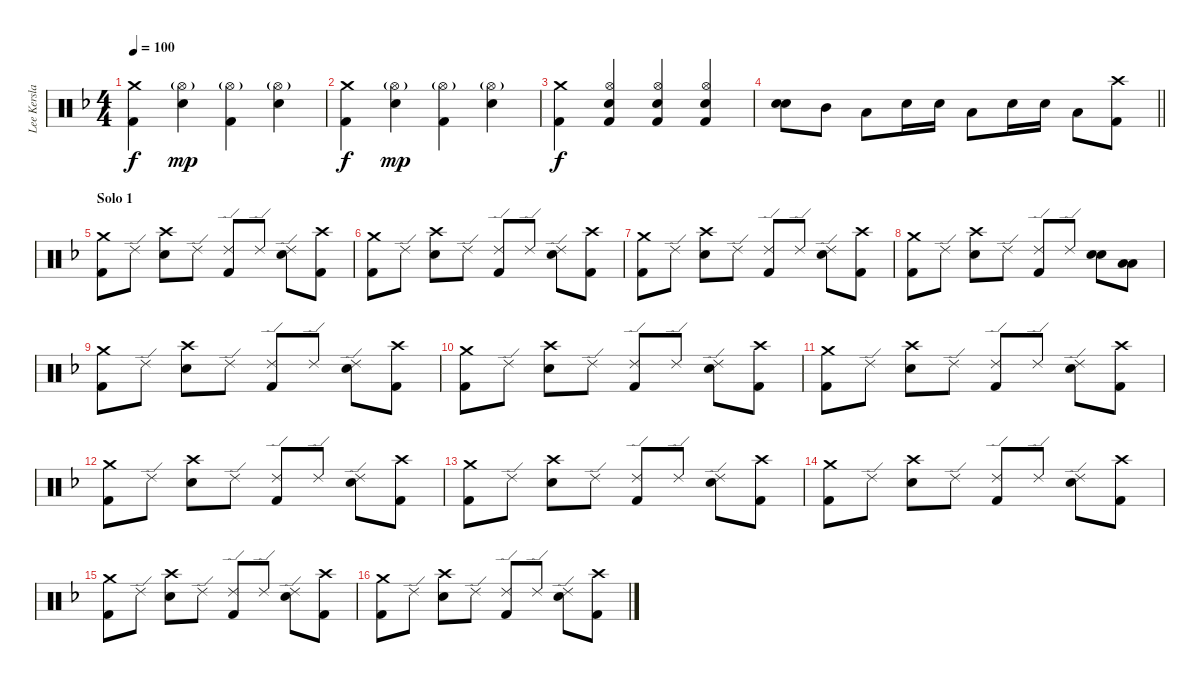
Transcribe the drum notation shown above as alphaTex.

\track ("Lee Kerslake - Drums" "Lee Kersla") {instrument percussion}
\staff {score}
\articulation defaults
\ts (4 4)
\tempo 100
\clef neutral
\ks dminor
("Crash medium (hit)" "Kick (hit) 2").4{dy f} ("Hi-Hat (open)"{g} "Snare (hit) 2").4{dy mp} ("Hi-Hat (open)"{g} "Kick (hit) 2").4 ("Hi-Hat (open)"{g} "Snare (hit) 2").4 |
("Crash medium (hit)" "Kick (hit) 2").4{dy f} ("Hi-Hat (open)"{g} "Snare (hit) 2").4{dy mp} ("Hi-Hat (open)"{g} "Kick (hit) 2").4 ("Hi-Hat (open)"{g} "Snare (hit) 2").4 |
("Crash medium (hit)" "Kick (hit) 2").4{dy f} ("Hi-Hat (open)" "Snare (hit) 2" "Kick (hit) 2").4 ("Hi-Hat (open)" "Snare (hit) 2" "Kick (hit) 2").4 ("Hi-Hat (open)" "Snare (hit) 2" "Kick (hit) 2").4 |
\barLineRight lightlight
("Snare (hit) 2" "Snare (hit) 2").8{bd 240} "Mid Tom (hit)".8 "Low Tom (hit)".8 "Snare (hit) 2".16 "Snare (hit) 2".16 "Low Tom (hit)".8 "Snare (hit) 2".16 "Snare (hit) 2".16 "Low Tom (hit)".8 ("Crash high (hit)" "Kick (hit) 2").8 |
\section ("" "Solo 1")
("Crash medium (hit)" "Kick (hit) 2").8 "Ride (edge) 2".8 ("Crash high (hit)" "Snare (hit) 2").8 "Ride (edge) 2".8 ("Ride (edge) 2" "Kick (hit) 2").8 "Ride (edge) 2".8 ("Ride (edge) 2" "Snare (hit) 2").8 ("Crash high (hit)" "Kick (hit) 2").8 |
("Crash medium (hit)" "Kick (hit) 2").8 "Ride (edge) 2".8 ("Crash high (hit)" "Snare (hit) 2").8 "Ride (edge) 2".8 ("Ride (edge) 2" "Kick (hit) 2").8 "Ride (edge) 2".8 ("Ride (edge) 2" "Snare (hit) 2").8 ("Crash high (hit)" "Kick (hit) 2").8 |
("Crash medium (hit)" "Kick (hit) 2").8 "Ride (edge) 2".8 ("Crash high (hit)" "Snare (hit) 2").8 "Ride (edge) 2".8 ("Ride (edge) 2" "Kick (hit) 2").8 "Ride (edge) 2".8 ("Ride (edge) 2" "Snare (hit) 2").8 ("Crash high (hit)" "Kick (hit) 2").8 |
("Crash medium (hit)" "Kick (hit) 2").8 "Ride (edge) 2".8 ("Crash high (hit)" "Snare (hit) 2").8 "Ride (edge) 2".8 ("Ride (edge) 2" "Kick (hit) 2").8 "Ride (edge) 2".8 ("Snare (hit) 2" "Snare (hit) 2").8{bd 240} ("Low Tom (hit)" "Low Tom (hit)").8{bd 240} |
("Crash medium (hit)" "Kick (hit) 2").8 "Ride (edge) 2".8 ("Crash high (hit)" "Snare (hit) 2").8 "Ride (edge) 2".8 ("Ride (edge) 2" "Kick (hit) 2").8 "Ride (edge) 2".8 ("Ride (edge) 2" "Snare (hit) 2").8 ("Crash high (hit)" "Kick (hit) 2").8 |
("Crash medium (hit)" "Kick (hit) 2").8 "Ride (edge) 2".8 ("Crash high (hit)" "Snare (hit) 2").8 "Ride (edge) 2".8 ("Ride (edge) 2" "Kick (hit) 2").8 "Ride (edge) 2".8 ("Ride (edge) 2" "Snare (hit) 2").8 ("Crash high (hit)" "Kick (hit) 2").8 |
("Crash medium (hit)" "Kick (hit) 2").8 "Ride (edge) 2".8 ("Crash high (hit)" "Snare (hit) 2").8 "Ride (edge) 2".8 ("Ride (edge) 2" "Kick (hit) 2").8 "Ride (edge) 2".8 ("Ride (edge) 2" "Snare (hit) 2").8 ("Crash high (hit)" "Kick (hit) 2").8 |
("Crash medium (hit)" "Kick (hit) 2").8 "Ride (edge) 2".8 ("Crash high (hit)" "Snare (hit) 2").8 "Ride (edge) 2".8 ("Ride (edge) 2" "Kick (hit) 2").8 "Ride (edge) 2".8 ("Ride (edge) 2" "Snare (hit) 2").8 ("Crash high (hit)" "Kick (hit) 2").8 |
("Crash medium (hit)" "Kick (hit) 2").8 "Ride (edge) 2".8 ("Crash high (hit)" "Snare (hit) 2").8 "Ride (edge) 2".8 ("Ride (edge) 2" "Kick (hit) 2").8 "Ride (edge) 2".8 ("Ride (edge) 2" "Snare (hit) 2").8 ("Crash high (hit)" "Kick (hit) 2").8 |
("Crash medium (hit)" "Kick (hit) 2").8 "Ride (edge) 2".8 ("Crash high (hit)" "Snare (hit) 2").8 "Ride (edge) 2".8 ("Ride (edge) 2" "Kick (hit) 2").8 "Ride (edge) 2".8 ("Ride (edge) 2" "Snare (hit) 2").8 ("Crash high (hit)" "Kick (hit) 2").8 |
("Crash medium (hit)" "Kick (hit) 2").8 "Ride (edge) 2".8 ("Crash high (hit)" "Snare (hit) 2").8 "Ride (edge) 2".8 ("Ride (edge) 2" "Kick (hit) 2").8 "Ride (edge) 2".8 ("Ride (edge) 2" "Snare (hit) 2").8 ("Crash high (hit)" "Kick (hit) 2").8 |
("Crash medium (hit)" "Kick (hit) 2").8 "Ride (edge) 2".8 ("Crash high (hit)" "Snare (hit) 2").8 "Ride (edge) 2".8 ("Ride (edge) 2" "Kick (hit) 2").8 "Ride (edge) 2".8 ("Ride (edge) 2" "Snare (hit) 2").8 ("Crash high (hit)" "Kick (hit) 2").8
